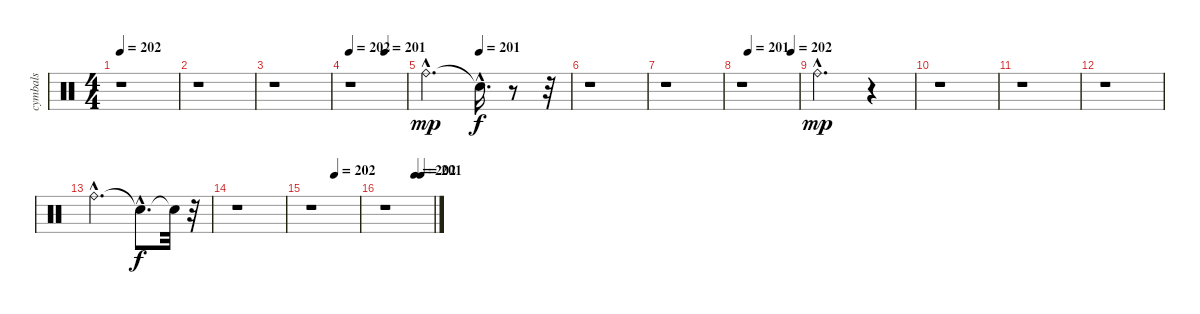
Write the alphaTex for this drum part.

\track ("cymbals" "cymbals") {instrument percussion}
\staff {score}
\articulation defaults
\ts (4 4)
\tempo 202
\clef neutral
\ks c
r.1{dy f} |
r.1 |
r.1 |
\tempo 202
\tempo (201 0.625)
r.1 |
\tempo (201 0.375)
"Ride (bell)"{hac}.2{d dy mp} "Snare (hit)"{hac t}.16{d dy f} r.8 r.32 |
r.1 |
r.1 |
\tempo (201 0.125)
\tempo (202 0.875)
r.1 |
"Ride (bell)"{hac}.2{d dy mp} r.4 |
r.1 |
r.1 |
r.1 |
"Ride (bell)"{hac}.2{d} "Snare (hit)"{hac t}.8{d dy f} "Snare (hit)"{t}.32 r.32 |
r.1 |
\tempo (202 0.5)
r.1 |
\tempo (202 0.625)
\tempo (201 0.75)
r.1
